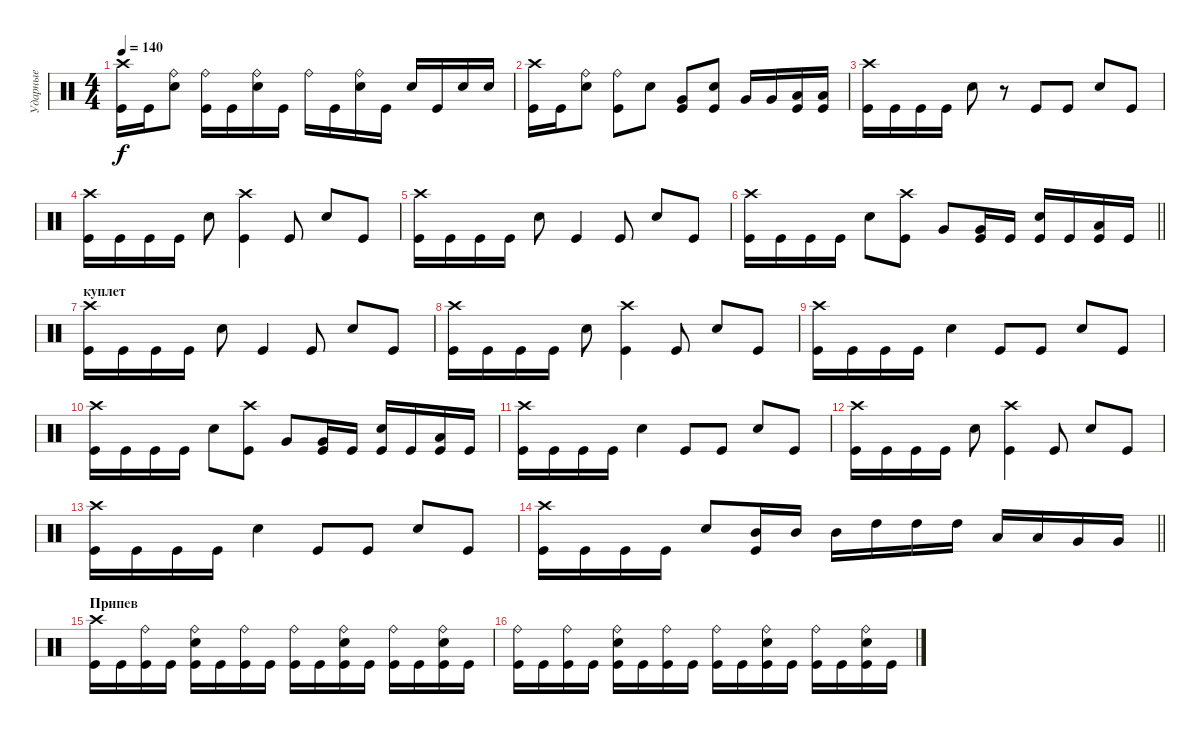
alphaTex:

\track ("Ударные" "Ударные") {instrument percussion}
\staff {score}
\articulation defaults
\ts (4 4)
\tempo 140
\clef neutral
\ks c
("Crash high (hit)" "Kick (hit)").16{dy f} "Kick (hit)".16 ("Ride (bell)" "Electric Snare (hit)").8 ("Ride (bell)" "Kick (hit)").16 "Kick (hit)".16 ("Ride (bell)" "Electric Snare (hit)").16 "Kick (hit)".16 "Ride (bell)".16 "Kick (hit)".16 ("Ride (bell)" "Electric Snare (hit)").16 "Kick (hit)".16 "Electric Snare (hit)".16 "Kick (hit)".16 "Electric Snare (hit)".16 "Electric Snare (hit)".16 |
("Crash high (hit)" "Kick (hit)").16 "Kick (hit)".16 ("Ride (bell)" "Electric Snare (hit)").8 ("Ride (bell)" "Kick (hit)").8 "Electric Snare (hit)".8 ("Very Low Tom (hit)" "Kick (hit)").8 ("Electric Snare (hit)" "Kick (hit)").8 "Very Low Tom (hit)".16 "Very Low Tom (hit)".16 ("Low Tom (hit)" "Kick (hit)").16 ("Low Tom (hit)" "Kick (hit)").16 |
("Crash high (hit)" "Kick (hit)").16 "Kick (hit)".16 "Kick (hit)".16 "Kick (hit)".16 "Electric Snare (hit)".8 r.8 "Kick (hit)".8 "Kick (hit)".8 "Electric Snare (hit)".8 "Kick (hit)".8 |
("Crash high (hit)" "Kick (hit)").16 "Kick (hit)".16 "Kick (hit)".16 "Kick (hit)".16 "Electric Snare (hit)".8 ("Crash high (hit)" "Kick (hit)").4 "Kick (hit)".8 "Electric Snare (hit)".8 "Kick (hit)".8 |
("Crash high (hit)" "Kick (hit)").16 "Kick (hit)".16 "Kick (hit)".16 "Kick (hit)".16 "Electric Snare (hit)".8 "Kick (hit)".4 "Kick (hit)".8 "Electric Snare (hit)".8 "Kick (hit)".8 |
\barLineRight lightlight
("Crash high (hit)" "Kick (hit)").16 "Kick (hit)".16 "Kick (hit)".16 "Kick (hit)".16 "Electric Snare (hit)".8 ("Crash high (hit)" "Kick (hit)").8 "Very Low Tom (hit)".8 ("Very Low Tom (hit)" "Kick (hit)").16 "Kick (hit)".16 ("Electric Snare (hit)" "Kick (hit)").16 "Kick (hit)".16 ("Low Tom (hit)" "Kick (hit)").16 "Kick (hit)".16 |
\section ("" "куплет")
("Crash high (hit)" "Kick (hit)").16 "Kick (hit)".16 "Kick (hit)".16 "Kick (hit)".16 "Electric Snare (hit)".8 "Kick (hit)".4 "Kick (hit)".8 "Electric Snare (hit)".8 "Kick (hit)".8 |
("Crash high (hit)" "Kick (hit)").16 "Kick (hit)".16 "Kick (hit)".16 "Kick (hit)".16 "Electric Snare (hit)".8 ("Crash high (hit)" "Kick (hit)").4 "Kick (hit)".8 "Electric Snare (hit)".8 "Kick (hit)".8 |
("Crash high (hit)" "Kick (hit)").16 "Kick (hit)".16 "Kick (hit)".16 "Kick (hit)".16 "Electric Snare (hit)".4 "Kick (hit)".8 "Kick (hit)".8 "Electric Snare (hit)".8 "Kick (hit)".8 |
("Crash high (hit)" "Kick (hit)").16 "Kick (hit)".16 "Kick (hit)".16 "Kick (hit)".16 "Electric Snare (hit)".8 ("Crash high (hit)" "Kick (hit)").8 "Very Low Tom (hit)".8 ("Very Low Tom (hit)" "Kick (hit)").16 "Kick (hit)".16 ("Electric Snare (hit)" "Kick (hit)").16 "Kick (hit)".16 ("Low Tom (hit)" "Kick (hit)").16 "Kick (hit)".16 |
("Crash high (hit)" "Kick (hit)").16 "Kick (hit)".16 "Kick (hit)".16 "Kick (hit)".16 "Electric Snare (hit)".4 "Kick (hit)".8 "Kick (hit)".8 "Electric Snare (hit)".8 "Kick (hit)".8 |
("Crash high (hit)" "Kick (hit)").16 "Kick (hit)".16 "Kick (hit)".16 "Kick (hit)".16 "Electric Snare (hit)".8 ("Crash high (hit)" "Kick (hit)").4 "Kick (hit)".8 "Electric Snare (hit)".8 "Kick (hit)".8 |
("Crash high (hit)" "Kick (hit)").16 "Kick (hit)".16 "Kick (hit)".16 "Kick (hit)".16 "Electric Snare (hit)".4 "Kick (hit)".8 "Kick (hit)".8 "Electric Snare (hit)".8 "Kick (hit)".8 |
\barLineRight lightlight
("Crash high (hit)" "Kick (hit)").16 "Kick (hit)".16 "Kick (hit)".16 "Kick (hit)".16 "Electric Snare (hit)".8 ("Mid Tom (hit)" "Kick (hit)").16 "Mid Tom (hit)".16 "Mid Tom (hit)".16 "High Tom (hit)".16 "High Tom (hit)".16 "High Tom (hit)".16 "Low Tom (hit)".16 "Low Tom (hit)".16 "Very Low Tom (hit)".16 "Very Low Tom (hit)".16 |
\section ("" "Припев")
("Crash high (hit)" "Kick (hit)").16 "Kick (hit)".16 ("Ride (bell)" "Kick (hit)").16 "Kick (hit)".16 ("Ride (bell)" "Electric Snare (hit)" "Kick (hit)").16 "Kick (hit)".16 ("Ride (bell)" "Kick (hit)").16 "Kick (hit)".16 ("Ride (bell)" "Kick (hit)").16 "Kick (hit)".16 ("Ride (bell)" "Electric Snare (hit)" "Kick (hit)").16 "Kick (hit)".16 ("Ride (bell)" "Kick (hit)").16 "Kick (hit)".16 ("Ride (bell)" "Electric Snare (hit)" "Kick (hit)").16 "Kick (hit)".16 |
("Ride (bell)" "Kick (hit)").16 "Kick (hit)".16 ("Ride (bell)" "Kick (hit)").16 "Kick (hit)".16 ("Ride (bell)" "Electric Snare (hit)" "Kick (hit)").16 "Kick (hit)".16 ("Ride (bell)" "Kick (hit)").16 "Kick (hit)".16 ("Ride (bell)" "Kick (hit)").16 "Kick (hit)".16 ("Ride (bell)" "Electric Snare (hit)" "Kick (hit)").16 "Kick (hit)".16 ("Ride (bell)" "Kick (hit)").16 "Kick (hit)".16 ("Ride (bell)" "Electric Snare (hit)" "Kick (hit)").16 "Kick (hit)".16
